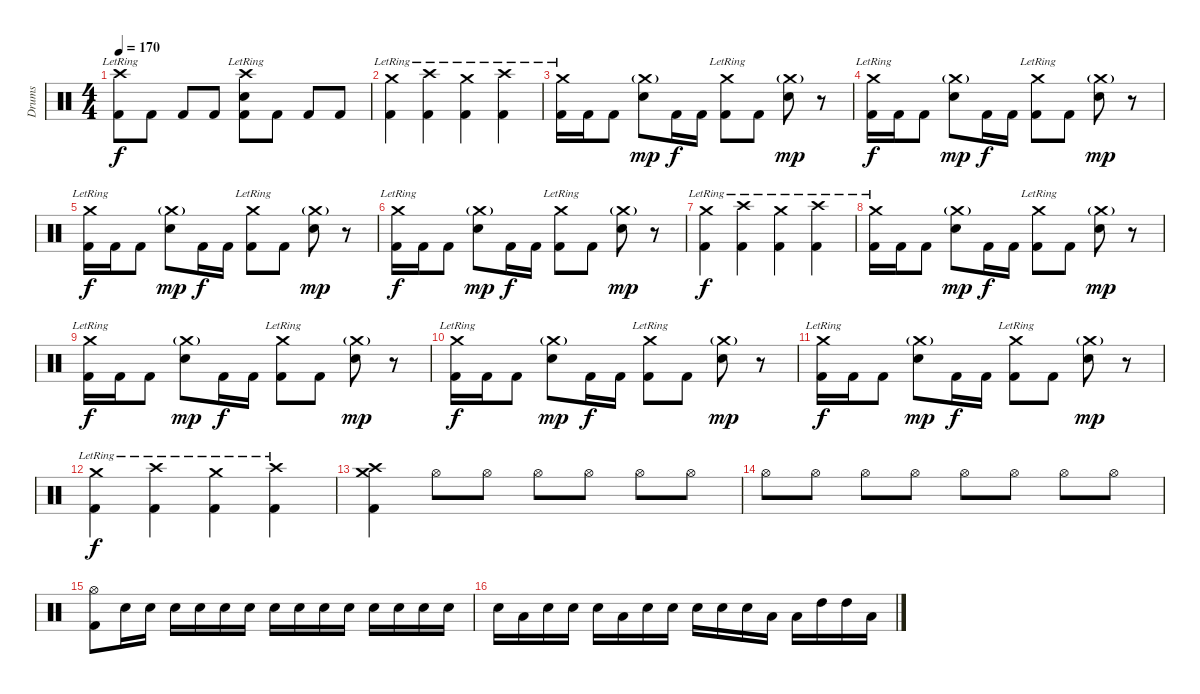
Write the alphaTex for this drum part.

\track ("Drums" "Drums") {instrument percussion}
\staff {score}
\articulation defaults
\ts (4 4)
\tempo 170
\clef neutral
\ks c
("Crash high (hit)"{lr} "Kick (hit) 2").8{dy f} "Kick (hit) 2".8 "Kick (hit) 2".8 "Kick (hit) 2".8 ("Crash high (hit)"{lr} "Electric Snare (hit)" "Kick (hit) 2").8 "Kick (hit) 2".8 "Kick (hit) 2".8 "Kick (hit) 2".8 |
("Crash medium (hit)"{lr} "Kick (hit) 2").4 ("Crash high (hit)"{lr} "Kick (hit) 2").4 ("Crash medium (hit)"{lr} "Kick (hit) 2").4 ("Crash high (hit)"{lr} "Kick (hit) 2").4 |
("Crash medium (hit)"{lr} "Kick (hit) 2").16 "Kick (hit) 2".16 "Kick (hit) 2".8 ("Crash medium (hit)"{g} "Electric Snare (hit)").8{dy mp} "Kick (hit) 2".16{dy f} "Kick (hit) 2".16 ("Crash medium (hit)"{lr} "Kick (hit) 2").8 "Kick (hit) 2".8 ("Crash medium (hit)"{g} "Electric Snare (hit)").8{dy mp} r.8 |
("Crash medium (hit)"{lr} "Kick (hit) 2").16{dy f} "Kick (hit) 2".16 "Kick (hit) 2".8 ("Crash medium (hit)"{g} "Electric Snare (hit)").8{dy mp} "Kick (hit) 2".16{dy f} "Kick (hit) 2".16 ("Crash medium (hit)"{lr} "Kick (hit) 2").8 "Kick (hit) 2".8 ("Crash medium (hit)"{g} "Electric Snare (hit)").8{dy mp} r.8 |
("Crash medium (hit)"{lr} "Kick (hit) 2").16{dy f} "Kick (hit) 2".16 "Kick (hit) 2".8 ("Crash medium (hit)"{g} "Electric Snare (hit)").8{dy mp} "Kick (hit) 2".16{dy f} "Kick (hit) 2".16 ("Crash medium (hit)"{lr} "Kick (hit) 2").8 "Kick (hit) 2".8 ("Crash medium (hit)"{g} "Electric Snare (hit)").8{dy mp} r.8 |
("Crash medium (hit)"{lr} "Kick (hit) 2").16{dy f} "Kick (hit) 2".16 "Kick (hit) 2".8 ("Crash medium (hit)"{g} "Electric Snare (hit)").8{dy mp} "Kick (hit) 2".16{dy f} "Kick (hit) 2".16 ("Crash medium (hit)"{lr} "Kick (hit) 2").8 "Kick (hit) 2".8 ("Crash medium (hit)"{g} "Electric Snare (hit)").8{dy mp} r.8 |
("Crash medium (hit)"{lr} "Kick (hit) 2").4{dy f} ("Crash high (hit)"{lr} "Kick (hit) 2").4 ("Crash medium (hit)"{lr} "Kick (hit) 2").4 ("Crash high (hit)"{lr} "Kick (hit) 2").4 |
("Crash medium (hit)"{lr} "Kick (hit) 2").16 "Kick (hit) 2".16 "Kick (hit) 2".8 ("Crash medium (hit)"{g} "Electric Snare (hit)").8{dy mp} "Kick (hit) 2".16{dy f} "Kick (hit) 2".16 ("Crash medium (hit)"{lr} "Kick (hit) 2").8 "Kick (hit) 2".8 ("Crash medium (hit)"{g} "Electric Snare (hit)").8{dy mp} r.8 |
("Crash medium (hit)"{lr} "Kick (hit) 2").16{dy f} "Kick (hit) 2".16 "Kick (hit) 2".8 ("Crash medium (hit)"{g} "Electric Snare (hit)").8{dy mp} "Kick (hit) 2".16{dy f} "Kick (hit) 2".16 ("Crash medium (hit)"{lr} "Kick (hit) 2").8 "Kick (hit) 2".8 ("Crash medium (hit)"{g} "Electric Snare (hit)").8{dy mp} r.8 |
("Crash medium (hit)"{lr} "Kick (hit) 2").16{dy f} "Kick (hit) 2".16 "Kick (hit) 2".8 ("Crash medium (hit)"{g} "Electric Snare (hit)").8{dy mp} "Kick (hit) 2".16{dy f} "Kick (hit) 2".16 ("Crash medium (hit)"{lr} "Kick (hit) 2").8 "Kick (hit) 2".8 ("Crash medium (hit)"{g} "Electric Snare (hit)").8{dy mp} r.8 |
("Crash medium (hit)"{lr} "Kick (hit) 2").16{dy f} "Kick (hit) 2".16 "Kick (hit) 2".8 ("Crash medium (hit)"{g} "Electric Snare (hit)").8{dy mp} "Kick (hit) 2".16{dy f} "Kick (hit) 2".16 ("Crash medium (hit)"{lr} "Kick (hit) 2").8 "Kick (hit) 2".8 ("Crash medium (hit)"{g} "Electric Snare (hit)").8{dy mp} r.8 |
("Crash medium (hit)"{lr} "Kick (hit) 2").4{dy f} ("Crash high (hit)"{lr} "Kick (hit) 2").4 ("Crash medium (hit)"{lr} "Kick (hit) 2").4 ("Crash high (hit)"{lr} "Kick (hit) 2").4 |
("Crash medium (hit)" "Crash high (hit)" "Kick (hit) 2").4 "Hi-Hat (open)".8 "Hi-Hat (open)".8 "Hi-Hat (open)".8 "Hi-Hat (open)".8 "Hi-Hat (open)".8 "Hi-Hat (open)".8 |
"Hi-Hat (open)".8 "Hi-Hat (open)".8 "Hi-Hat (open)".8 "Hi-Hat (open)".8 "Hi-Hat (open)".8 "Hi-Hat (open)".8 "Hi-Hat (open)".8 "Hi-Hat (open)".8 |
("Hi-Hat (open)" "Kick (hit) 2").8 "Electric Snare (hit)".16 "Electric Snare (hit)".16 "Electric Snare (hit)".16 "Electric Snare (hit)".16 "Electric Snare (hit)".16 "Electric Snare (hit)".16 "Electric Snare (hit)".16 "Electric Snare (hit)".16 "Electric Snare (hit)".16 "Electric Snare (hit)".16 "Electric Snare (hit)".16 "Electric Snare (hit)".16 "Electric Snare (hit)".16 "Electric Snare (hit)".16 |
"Electric Snare (hit)".16 "Low Tom (hit)".16 "Electric Snare (hit)".16 "Electric Snare (hit)".16 "Electric Snare (hit)".16 "Low Tom (hit)".16 "Electric Snare (hit)".16 "Electric Snare (hit)".16 "Electric Snare (hit)".16 "Electric Snare (hit)".16 "Electric Snare (hit)".16 "Low Tom (hit)".16 "Low Tom (hit)".16 "High Tom (hit)".16 "High Tom (hit)".16 "Low Floor Tom (hit)".16
